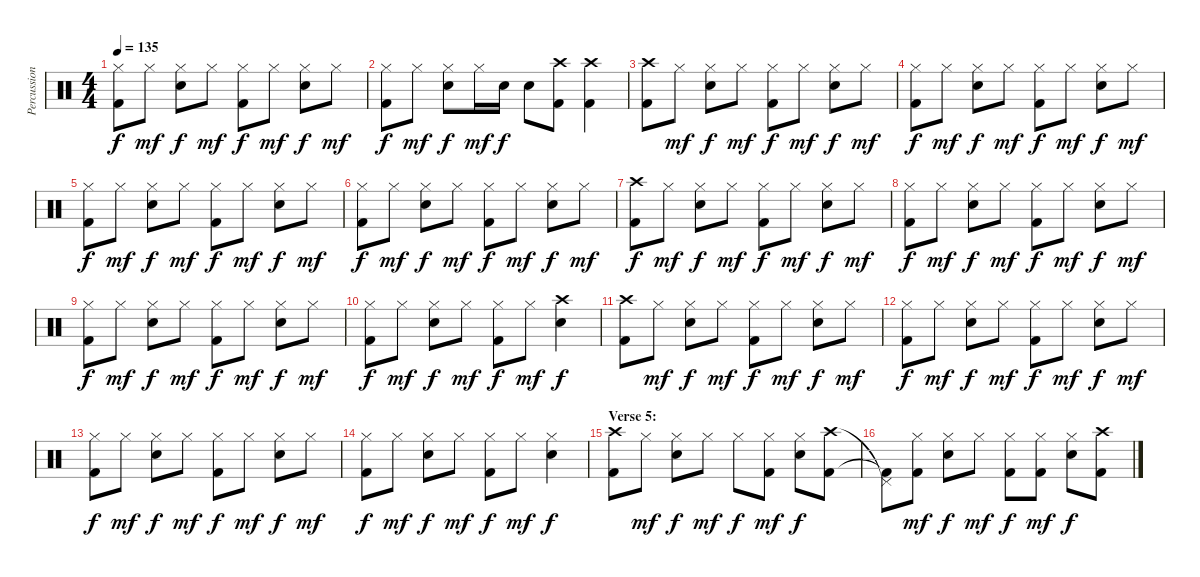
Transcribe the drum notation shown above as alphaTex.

\track ("Percussion" "Percussion") {instrument percussion}
\staff {score}
\articulation defaults
\ts (4 4)
\tempo 135
\clef neutral
\ks c
("Hi-Hat (closed)" "Kick (hit) 2").8{dy f} "Hi-Hat (closed)".8{dy mf} ("Hi-Hat (closed)" "Snare (hit) 2").8{dy f} "Hi-Hat (closed)".8{dy mf} ("Hi-Hat (closed)" "Kick (hit) 2").8{dy f} "Hi-Hat (closed)".8{dy mf} ("Hi-Hat (closed)" "Snare (hit) 2").8{dy f} "Hi-Hat (closed)".8{dy mf} |
("Hi-Hat (closed)" "Kick (hit) 2").8{dy f} "Hi-Hat (closed)".8{dy mf} ("Hi-Hat (closed)" "Snare (hit) 2").8{dy f} "Hi-Hat (closed)".16{dy mf} "Snare (hit) 2".16{dy f} "Snare (hit) 2".8 ("Crash high (hit)" "Kick (hit) 2").8 ("Crash high (hit)" "Kick (hit) 2").4 |
("Crash high (hit)" "Kick (hit) 2").8 "Hi-Hat (closed)".8{dy mf} ("Hi-Hat (closed)" "Snare (hit) 2").8{dy f} "Hi-Hat (closed)".8{dy mf} ("Hi-Hat (closed)" "Kick (hit) 2").8{dy f} "Hi-Hat (closed)".8{dy mf} ("Hi-Hat (closed)" "Snare (hit) 2").8{dy f} "Hi-Hat (closed)".8{dy mf} |
("Hi-Hat (closed)" "Kick (hit) 2").8{dy f} "Hi-Hat (closed)".8{dy mf} ("Hi-Hat (closed)" "Snare (hit) 2").8{dy f} "Hi-Hat (closed)".8{dy mf} ("Hi-Hat (closed)" "Kick (hit) 2").8{dy f} "Hi-Hat (closed)".8{dy mf} ("Hi-Hat (closed)" "Snare (hit) 2").8{dy f} "Hi-Hat (closed)".8{dy mf} |
("Hi-Hat (closed)" "Kick (hit) 2").8{dy f} "Hi-Hat (closed)".8{dy mf} ("Hi-Hat (closed)" "Snare (hit) 2").8{dy f} "Hi-Hat (closed)".8{dy mf} ("Hi-Hat (closed)" "Kick (hit) 2").8{dy f} "Hi-Hat (closed)".8{dy mf} ("Hi-Hat (closed)" "Snare (hit) 2").8{dy f} "Hi-Hat (closed)".8{dy mf} |
("Hi-Hat (closed)" "Kick (hit) 2").8{dy f} "Hi-Hat (closed)".8{dy mf} ("Hi-Hat (closed)" "Snare (hit) 2").8{dy f} "Hi-Hat (closed)".8{dy mf} ("Hi-Hat (closed)" "Kick (hit) 2").8{dy f} "Hi-Hat (closed)".8{dy mf} ("Hi-Hat (closed)" "Snare (hit) 2").8{dy f} "Hi-Hat (closed)".8{dy mf} |
("Crash high (hit)" "Kick (hit) 2").8{dy f} "Hi-Hat (closed)".8{dy mf} ("Hi-Hat (closed)" "Snare (hit) 2").8{dy f} "Hi-Hat (closed)".8{dy mf} ("Hi-Hat (closed)" "Kick (hit) 2").8{dy f} "Hi-Hat (closed)".8{dy mf} ("Hi-Hat (closed)" "Snare (hit) 2").8{dy f} "Hi-Hat (closed)".8{dy mf} |
("Hi-Hat (closed)" "Kick (hit) 2").8{dy f} "Hi-Hat (closed)".8{dy mf} ("Hi-Hat (closed)" "Snare (hit) 2").8{dy f} "Hi-Hat (closed)".8{dy mf} ("Hi-Hat (closed)" "Kick (hit) 2").8{dy f} "Hi-Hat (closed)".8{dy mf} ("Hi-Hat (closed)" "Snare (hit) 2").8{dy f} "Hi-Hat (closed)".8{dy mf} |
("Hi-Hat (closed)" "Kick (hit) 2").8{dy f} "Hi-Hat (closed)".8{dy mf} ("Hi-Hat (closed)" "Snare (hit) 2").8{dy f} "Hi-Hat (closed)".8{dy mf} ("Hi-Hat (closed)" "Kick (hit) 2").8{dy f} "Hi-Hat (closed)".8{dy mf} ("Hi-Hat (closed)" "Snare (hit) 2").8{dy f} "Hi-Hat (closed)".8{dy mf} |
("Hi-Hat (closed)" "Kick (hit) 2").8{dy f} "Hi-Hat (closed)".8{dy mf} ("Hi-Hat (closed)" "Snare (hit) 2").8{dy f} "Hi-Hat (closed)".8{dy mf} ("Hi-Hat (closed)" "Kick (hit) 2").8{dy f} "Hi-Hat (closed)".8{dy mf} ("Crash high (hit)" "Snare (hit) 2").4{dy f} |
("Crash high (hit)" "Kick (hit) 2").8 "Hi-Hat (closed)".8{dy mf} ("Hi-Hat (closed)" "Snare (hit) 2").8{dy f} "Hi-Hat (closed)".8{dy mf} ("Hi-Hat (closed)" "Kick (hit) 2").8{dy f} "Hi-Hat (closed)".8{dy mf} ("Hi-Hat (closed)" "Snare (hit) 2").8{dy f} "Hi-Hat (closed)".8{dy mf} |
("Hi-Hat (closed)" "Kick (hit) 2").8{dy f} "Hi-Hat (closed)".8{dy mf} ("Hi-Hat (closed)" "Snare (hit) 2").8{dy f} "Hi-Hat (closed)".8{dy mf} ("Hi-Hat (closed)" "Kick (hit) 2").8{dy f} "Hi-Hat (closed)".8{dy mf} ("Hi-Hat (closed)" "Snare (hit) 2").8{dy f} "Hi-Hat (closed)".8{dy mf} |
("Hi-Hat (closed)" "Kick (hit) 2").8{dy f} "Hi-Hat (closed)".8{dy mf} ("Hi-Hat (closed)" "Snare (hit) 2").8{dy f} "Hi-Hat (closed)".8{dy mf} ("Hi-Hat (closed)" "Kick (hit) 2").8{dy f} "Hi-Hat (closed)".8{dy mf} ("Hi-Hat (closed)" "Snare (hit) 2").8{dy f} "Hi-Hat (closed)".8{dy mf} |
("Hi-Hat (closed)" "Kick (hit) 2").8{dy f} "Hi-Hat (closed)".8{dy mf} ("Hi-Hat (closed)" "Snare (hit) 2").8{dy f} "Hi-Hat (closed)".8{dy mf} ("Hi-Hat (closed)" "Kick (hit) 2").8{dy f} "Hi-Hat (closed)".8{dy mf} ("Hi-Hat (closed)" "Snare (hit) 2").4{dy f} |
\section ("" "Verse 5:")
("Crash high (hit)" "Kick (hit) 2").8 "Hi-Hat (closed)".8{dy mf} ("Hi-Hat (closed)" "Snare (hit) 2").8{dy f} "Hi-Hat (closed)".8{dy mf} "Hi-Hat (closed)".8{dy f} ("Hi-Hat (closed)" "Kick (hit) 2").8{dy mf} ("Hi-Hat (closed)" "Snare (hit) 2").8{dy f} ("Crash high (hit)" "Kick (hit) 2").8 |
("Pedal Hi-Hat (hit)"{t} "Kick (hit) 2"{t}).8 ("Hi-Hat (closed)" "Kick (hit) 2").8{dy mf} ("Hi-Hat (closed)" "Snare (hit) 2").8{dy f} "Hi-Hat (closed)".8{dy mf} ("Hi-Hat (closed)" "Kick (hit) 2").8{dy f} ("Hi-Hat (closed)" "Kick (hit) 2").8{dy mf} ("Hi-Hat (closed)" "Snare (hit) 2").8{dy f} ("Crash high (hit)" "Kick (hit) 2").8
